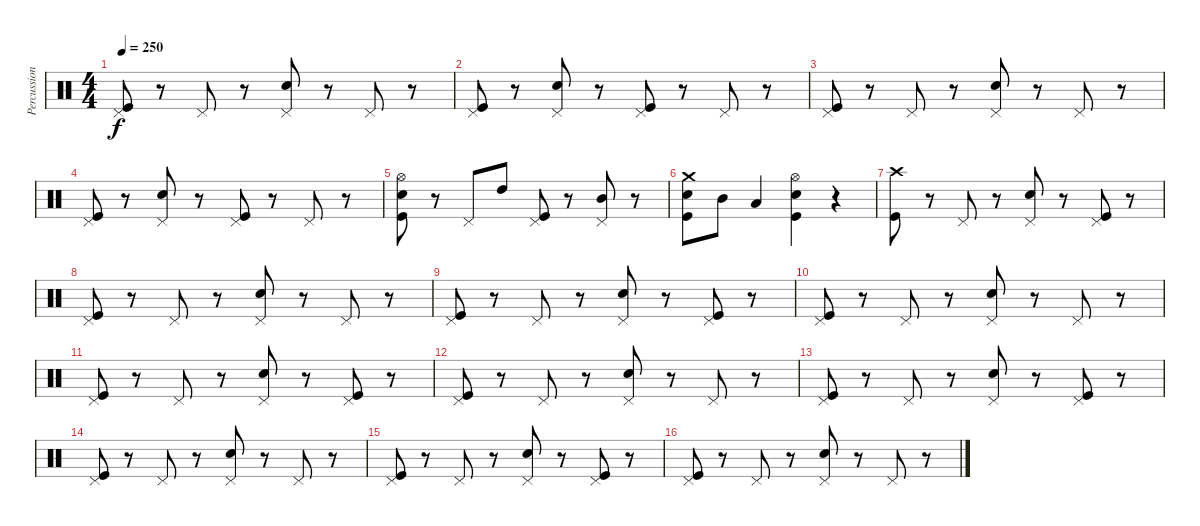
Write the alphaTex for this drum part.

\track ("Percussions" "Percussion") {instrument percussion}
\staff {score}
\articulation defaults
\ts (4 4)
\tempo 250
\clef neutral
\ks c
("Pedal Hi-Hat (hit)" "Kick (hit)").8{dy f} r.8 "Pedal Hi-Hat (hit)".8 r.8 ("Pedal Hi-Hat (hit)" "Snare (hit) 2").8 r.8 "Pedal Hi-Hat (hit)".8 r.8 |
("Pedal Hi-Hat (hit)" "Kick (hit)").8 r.8 ("Pedal Hi-Hat (hit)" "Snare (hit) 2").8 r.8 ("Pedal Hi-Hat (hit)" "Kick (hit)").8 r.8 "Pedal Hi-Hat (hit)".8 r.8 |
("Pedal Hi-Hat (hit)" "Kick (hit)").8 r.8 "Pedal Hi-Hat (hit)".8 r.8 ("Pedal Hi-Hat (hit)" "Snare (hit) 2").8 r.8 "Pedal Hi-Hat (hit)".8 r.8 |
("Pedal Hi-Hat (hit)" "Kick (hit)").8 r.8 ("Pedal Hi-Hat (hit)" "Snare (hit) 2").8 r.8 ("Pedal Hi-Hat (hit)" "Kick (hit)").8 r.8 "Pedal Hi-Hat (hit)".8 r.8 |
("Hi-Hat (open)" "Snare (hit) 2" "Kick (hit)").8 r.8 "Pedal Hi-Hat (hit)".8 "High Tom (hit)".8 ("Pedal Hi-Hat (hit)" "Kick (hit)").8 r.8 ("Pedal Hi-Hat (hit)" "Mid Tom (hit)").8 r.8 |
("Crash medium (hit)" "Snare (hit) 2" "Kick (hit)").8 "Mid Tom (hit)".8 "Low Tom (hit)".4 ("Hi-Hat (open)" "Snare (hit) 2" "Kick (hit)").4 r.4 |
("Crash high (hit)" "Kick (hit)").8 r.8 "Pedal Hi-Hat (hit)".8 r.8 ("Pedal Hi-Hat (hit)" "Snare (hit) 2").8 r.8 ("Pedal Hi-Hat (hit)" "Kick (hit)").8 r.8 |
("Pedal Hi-Hat (hit)" "Kick (hit)").8 r.8 "Pedal Hi-Hat (hit)".8 r.8 ("Pedal Hi-Hat (hit)" "Snare (hit) 2").8 r.8 "Pedal Hi-Hat (hit)".8 r.8 |
("Pedal Hi-Hat (hit)" "Kick (hit)").8 r.8 "Pedal Hi-Hat (hit)".8 r.8 ("Pedal Hi-Hat (hit)" "Snare (hit) 2").8 r.8 ("Pedal Hi-Hat (hit)" "Kick (hit)").8 r.8 |
("Pedal Hi-Hat (hit)" "Kick (hit)").8 r.8 "Pedal Hi-Hat (hit)".8 r.8 ("Pedal Hi-Hat (hit)" "Snare (hit) 2").8 r.8 "Pedal Hi-Hat (hit)".8 r.8 |
("Pedal Hi-Hat (hit)" "Kick (hit)").8 r.8 "Pedal Hi-Hat (hit)".8 r.8 ("Pedal Hi-Hat (hit)" "Snare (hit) 2").8 r.8 ("Pedal Hi-Hat (hit)" "Kick (hit)").8 r.8 |
("Pedal Hi-Hat (hit)" "Kick (hit)").8 r.8 "Pedal Hi-Hat (hit)".8 r.8 ("Pedal Hi-Hat (hit)" "Snare (hit) 2").8 r.8 "Pedal Hi-Hat (hit)".8 r.8 |
("Pedal Hi-Hat (hit)" "Kick (hit)").8 r.8 "Pedal Hi-Hat (hit)".8 r.8 ("Pedal Hi-Hat (hit)" "Snare (hit) 2").8 r.8 ("Pedal Hi-Hat (hit)" "Kick (hit)").8 r.8 |
("Pedal Hi-Hat (hit)" "Kick (hit)").8 r.8 "Pedal Hi-Hat (hit)".8 r.8 ("Pedal Hi-Hat (hit)" "Snare (hit) 2").8 r.8 "Pedal Hi-Hat (hit)".8 r.8 |
("Pedal Hi-Hat (hit)" "Kick (hit)").8 r.8 "Pedal Hi-Hat (hit)".8 r.8 ("Pedal Hi-Hat (hit)" "Snare (hit) 2").8 r.8 ("Pedal Hi-Hat (hit)" "Kick (hit)").8 r.8 |
("Pedal Hi-Hat (hit)" "Kick (hit)").8 r.8 "Pedal Hi-Hat (hit)".8 r.8 ("Pedal Hi-Hat (hit)" "Snare (hit) 2").8 r.8 "Pedal Hi-Hat (hit)".8 r.8
